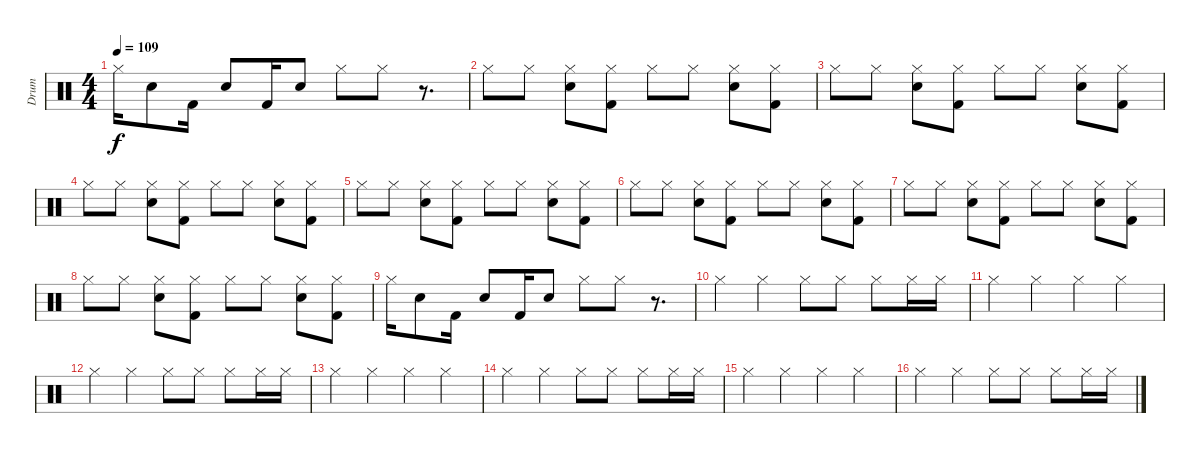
\track ("Drum" "Drum") {instrument percussion}
\staff {score}
\articulation defaults
\ts (4 4)
\tempo 109
\clef neutral
\ks c "Hi-Hat (closed)".16{dy f} "Electric Snare (hit)".8 "Kick (hit) 2".16 "Electric Snare (hit)".8 "Kick (hit) 2".16 "Electric Snare (hit)".8 "Hi-Hat (closed)".8 "Hi-Hat (closed)".8
r.8{d} |
"Hi-Hat (closed)".8 "Hi-Hat (closed)".8 ("Electric Snare (hit)" "Hi-Hat (closed)").8 ("Kick (hit) 2" "Hi-Hat (closed)").8 "Hi-Hat (closed)".8 "Hi-Hat (closed)".8 ("Electric Snare (hit)" "Hi-Hat (closed)").8 ("Kick (hit) 2" "Hi-Hat (closed)").8 |
"Hi-Hat (closed)".8 "Hi-Hat (closed)".8 ("Electric Snare (hit)" "Hi-Hat (closed)").8 ("Kick (hit) 2" "Hi-Hat (closed)").8 "Hi-Hat (closed)".8 "Hi-Hat (closed)".8 ("Electric Snare (hit)" "Hi-Hat (closed)").8 ("Kick (hit) 2" "Hi-Hat (closed)").8 |
"Hi-Hat (closed)".8 "Hi-Hat (closed)".8 ("Electric Snare (hit)" "Hi-Hat (closed)").8 ("Kick (hit) 2" "Hi-Hat (closed)").8 "Hi-Hat (closed)".8 "Hi-Hat (closed)".8 ("Electric Snare (hit)" "Hi-Hat (closed)").8 ("Kick (hit) 2" "Hi-Hat (closed)").8 |
"Hi-Hat (closed)".8 "Hi-Hat (closed)".8 ("Electric Snare (hit)" "Hi-Hat (closed)").8 ("Kick (hit) 2" "Hi-Hat (closed)").8 "Hi-Hat (closed)".8 "Hi-Hat (closed)".8 ("Electric Snare (hit)" "Hi-Hat (closed)").8 ("Kick (hit) 2" "Hi-Hat (closed)").8 |
"Hi-Hat (closed)".8 "Hi-Hat (closed)".8 ("Electric Snare (hit)" "Hi-Hat (closed)").8 ("Kick (hit) 2" "Hi-Hat (closed)").8 "Hi-Hat (closed)".8 "Hi-Hat (closed)".8 ("Electric Snare (hit)" "Hi-Hat (closed)").8 ("Kick (hit) 2" "Hi-Hat (closed)").8 |
"Hi-Hat (closed)".8 "Hi-Hat (closed)".8 ("Electric Snare (hit)" "Hi-Hat (closed)").8 ("Kick (hit) 2" "Hi-Hat (closed)").8 "Hi-Hat (closed)".8 "Hi-Hat (closed)".8 ("Electric Snare (hit)" "Hi-Hat (closed)").8 ("Kick (hit) 2" "Hi-Hat (closed)").8 |
"Hi-Hat (closed)".8 "Hi-Hat (closed)".8 ("Electric Snare (hit)" "Hi-Hat (closed)").8 ("Kick (hit) 2" "Hi-Hat (closed)").8 "Hi-Hat (closed)".8 "Hi-Hat (closed)".8 ("Electric Snare (hit)" "Hi-Hat (closed)").8 ("Kick (hit) 2" "Hi-Hat (closed)").8 |
"Hi-Hat (closed)".16 "Electric Snare (hit)".8 "Kick (hit) 2".16 "Electric Snare (hit)".8 "Kick (hit) 2".16 "Electric Snare (hit)".8 "Hi-Hat (closed)".8 "Hi-Hat (closed)".8 r.8{d} |
"Hi-Hat (closed)".4 "Hi-Hat (closed)".4 "Hi-Hat (closed)".8 "Hi-Hat (closed)".8 "Hi-Hat (closed)".8 "Hi-Hat (closed)".16 "Hi-Hat (closed)".16 |
"Hi-Hat (closed)".4 "Hi-Hat (closed)".4 "Hi-Hat (closed)".4 "Hi-Hat (closed)".4 |
"Hi-Hat (closed)".4 "Hi-Hat (closed)".4 "Hi-Hat (closed)".8 "Hi-Hat (closed)".8 "Hi-Hat (closed)".8 "Hi-Hat (closed)".16 "Hi-Hat (closed)".16 |
"Hi-Hat (closed)".4 "Hi-Hat (closed)".4 "Hi-Hat (closed)".4 "Hi-Hat (closed)".4 |
"Hi-Hat (closed)".4 "Hi-Hat (closed)".4 "Hi-Hat (closed)".8 "Hi-Hat (closed)".8 "Hi-Hat (closed)".8 "Hi-Hat (closed)".16 "Hi-Hat (closed)".16 |
"Hi-Hat (closed)".4 "Hi-Hat (closed)".4 "Hi-Hat (closed)".4 "Hi-Hat (closed)".4 |
"Hi-Hat (closed)".4 "Hi-Hat (closed)".4 "Hi-Hat (closed)".8 "Hi-Hat (closed)".8 "Hi-Hat (closed)".8 "Hi-Hat (closed)".16 "Hi-Hat (closed)".16
